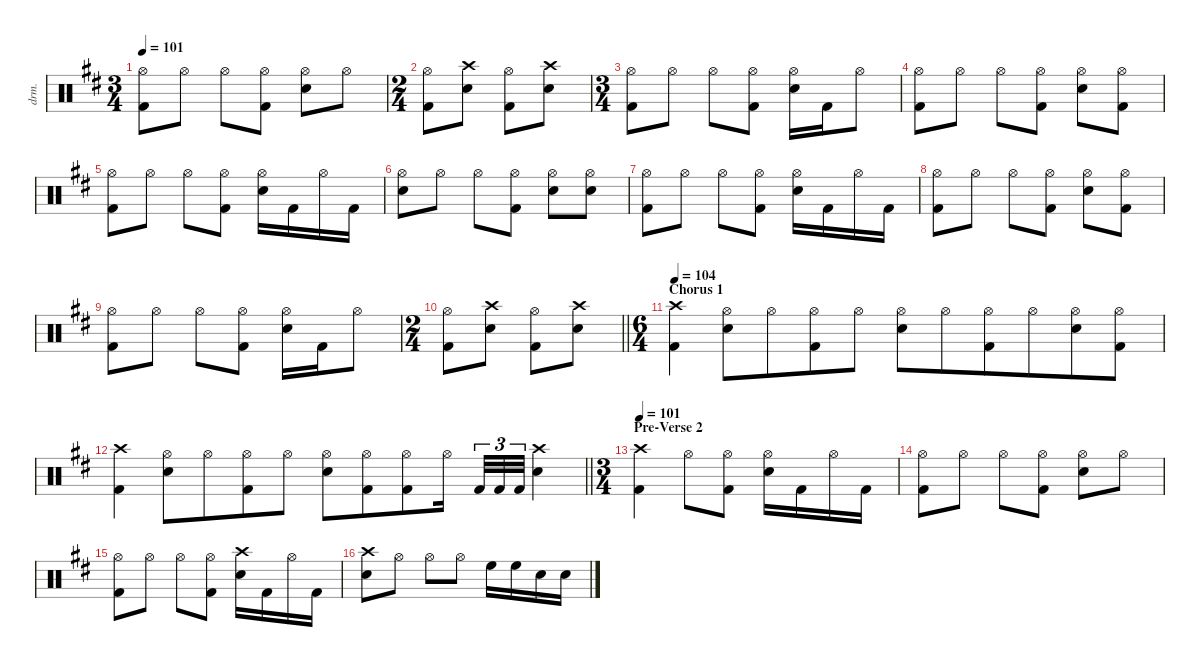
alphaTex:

\defaultSystemsLayout 4
\hideDynamics
\bracketExtendMode nobrackets
\otherSystemsTrackNameOrientation horizontal
\track ("Lars Ulrich" "drm.") {defaultSystemsLayout 4 instrument percussion}
\staff {score}
\articulation defaults
\ts (3 4)
\tempo 101
\clef neutral
\ks bminor
("Hi-Hat (open)"{acc forcenatural} "Kick (hit) 2"{acc forcenatural}).8{dy mf} "Hi-Hat (open)"{acc forcenatural}.8 "Hi-Hat (open)"{acc forcenatural}.8 ("Hi-Hat (open)"{acc forcenatural} "Kick (hit) 2"{acc forcenatural}).8 ("Hi-Hat (open)"{acc forcenatural} "Snare (hit) 2"{acc forcenatural}).8 "Hi-Hat (open)"{acc forcenatural}.8 |
\ts (2 4)
\beaming (8 2 2)
("Hi-Hat (open)"{acc forcenatural} "Kick (hit) 2"{acc forcenatural}).8 ("Crash high (hit)"{acc forcenatural} "Snare (hit) 2"{acc forcenatural}).8{dy f} ("Hi-Hat (open)"{acc forcenatural} "Kick (hit) 2"{acc forcenatural}).8{dy mf} ("Crash high (hit)"{acc forcenatural} "Snare (hit) 2"{acc forcenatural}).8{dy f} |
\ts (3 4)
\beaming (8 2 2 2)
("Hi-Hat (open)"{acc forcenatural} "Kick (hit) 2"{acc forcenatural}).8{dy mf} "Hi-Hat (open)"{acc forcenatural}.8 "Hi-Hat (open)"{acc forcenatural}.8 ("Hi-Hat (open)"{acc forcenatural} "Kick (hit) 2"{acc forcenatural}).8 ("Hi-Hat (open)"{acc forcenatural} "Snare (hit) 2"{acc forcenatural}).16 "Kick (hit) 2"{acc forcenatural}.16{dy fff} "Hi-Hat (open)"{acc forcenatural}.8{dy mf} |
("Hi-Hat (open)"{acc forcenatural} "Kick (hit) 2"{acc forcenatural}).8 "Hi-Hat (open)"{acc forcenatural}.8 "Hi-Hat (open)"{acc forcenatural}.8 ("Hi-Hat (open)"{acc forcenatural} "Kick (hit) 2"{acc forcenatural}).8 ("Hi-Hat (open)"{acc forcenatural} "Snare (hit) 2"{acc forcenatural}).8 ("Hi-Hat (open)"{acc forcenatural} "Kick (hit) 2"{acc forcenatural}).8 |
("Hi-Hat (open)"{acc forcenatural} "Kick (hit) 2"{acc forcenatural}).8 "Hi-Hat (open)"{acc forcenatural}.8 "Hi-Hat (open)"{acc forcenatural}.8 ("Hi-Hat (open)"{acc forcenatural} "Kick (hit) 2"{acc forcenatural}).8 ("Hi-Hat (open)"{acc forcenatural} "Snare (hit) 2"{acc forcenatural}).16 "Kick (hit) 2"{acc forcenatural}.16{dy fff} "Hi-Hat (open)"{acc forcenatural}.16{dy mf} "Kick (hit) 2"{acc forcenatural}.16{dy fff} |
("Hi-Hat (open)"{acc forcenatural} "Snare (hit) 2"{acc forcenatural}).8{dy mf} "Hi-Hat (open)"{acc forcenatural}.8 "Hi-Hat (open)"{acc forcenatural}.8 ("Hi-Hat (open)"{acc forcenatural} "Kick (hit) 2"{acc forcenatural}).8 ("Hi-Hat (open)"{acc forcenatural} "Snare (hit) 2"{acc forcenatural}).8 ("Hi-Hat (open)"{acc forcenatural} "Snare (hit) 2"{acc forcenatural}).8 |
("Hi-Hat (open)"{acc forcenatural} "Kick (hit) 2"{acc forcenatural}).8 "Hi-Hat (open)"{acc forcenatural}.8 "Hi-Hat (open)"{acc forcenatural}.8 ("Hi-Hat (open)"{acc forcenatural} "Kick (hit) 2"{acc forcenatural}).8 ("Hi-Hat (open)"{acc forcenatural} "Snare (hit) 2"{acc forcenatural}).16 "Kick (hit) 2"{acc forcenatural}.16{dy fff} "Hi-Hat (open)"{acc forcenatural}.16{dy mf} "Kick (hit) 2"{acc forcenatural}.16{dy fff} |
("Hi-Hat (open)"{acc forcenatural} "Kick (hit) 2"{acc forcenatural}).8{dy mf} "Hi-Hat (open)"{acc forcenatural}.8 "Hi-Hat (open)"{acc forcenatural}.8 ("Hi-Hat (open)"{acc forcenatural} "Kick (hit) 2"{acc forcenatural}).8 ("Hi-Hat (open)"{acc forcenatural} "Snare (hit) 2"{acc forcenatural}).8 ("Hi-Hat (open)"{acc forcenatural} "Kick (hit) 2"{acc forcenatural}).8 |
("Hi-Hat (open)"{acc forcenatural} "Kick (hit) 2"{acc forcenatural}).8 "Hi-Hat (open)"{acc forcenatural}.8 "Hi-Hat (open)"{acc forcenatural}.8 ("Hi-Hat (open)"{acc forcenatural} "Kick (hit) 2"{acc forcenatural}).8 ("Hi-Hat (open)"{acc forcenatural} "Snare (hit) 2"{acc forcenatural}).16 "Kick (hit) 2"{acc forcenatural}.16{dy fff} "Hi-Hat (open)"{acc forcenatural}.8{dy mf} |
\ts (2 4)
\beaming (8 2 2)
\barLineRight lightlight
("Hi-Hat (open)"{acc forcenatural} "Kick (hit) 2"{acc forcenatural}).8 ("Crash high (hit)"{acc forcenatural} "Snare (hit) 2"{acc forcenatural}).8{dy f} ("Hi-Hat (open)"{acc forcenatural} "Kick (hit) 2"{acc forcenatural}).8{dy mf} ("Crash high (hit)"{acc forcenatural} "Snare (hit) 2"{acc forcenatural}).8{dy f} |
\ts (6 4)
\beaming (8 6 6)
\section ("" "Chorus 1")
\tempo 104
("Crash high (hit)"{acc forcenatural} "Kick (hit) 2"{acc forcenatural}).4 ("Hi-Hat (open)"{acc forcenatural} "Snare (hit) 2"{acc forcenatural}).8 "Hi-Hat (open)"{acc forcenatural}.8 ("Hi-Hat (open)"{acc forcenatural} "Kick (hit) 2"{acc forcenatural}).8 "Hi-Hat (open)"{acc forcenatural}.8 ("Hi-Hat (open)"{acc forcenatural} "Snare (hit) 2"{acc forcenatural}).8 "Hi-Hat (open)"{acc forcenatural}.8 ("Hi-Hat (open)"{acc forcenatural} "Kick (hit) 2"{acc forcenatural}).8 "Hi-Hat (open)"{acc forcenatural}.8 ("Hi-Hat (open)"{acc forcenatural} "Snare (hit) 2"{acc forcenatural}).8 ("Hi-Hat (open)"{acc forcenatural} "Kick (hit) 2"{acc forcenatural}).8 |
\barLineRight lightlight
("Crash high (hit)"{acc forcenatural} "Kick (hit) 2"{acc forcenatural}).4 ("Hi-Hat (open)"{acc forcenatural} "Snare (hit) 2"{acc forcenatural}).8 "Hi-Hat (open)"{acc forcenatural}.8 ("Hi-Hat (open)"{acc forcenatural} "Kick (hit) 2"{acc forcenatural}).8 "Hi-Hat (open)"{acc forcenatural}.8 ("Hi-Hat (open)"{acc forcenatural} "Snare (hit) 2"{acc forcenatural}).8 ("Hi-Hat (open)"{acc forcenatural} "Kick (hit) 2"{acc forcenatural}).8 ("Hi-Hat (open)"{acc forcenatural} "Kick (hit) 2"{acc forcenatural}).8 "Hi-Hat (open)"{acc forcenatural}.16 "Kick (hit) 2"{acc forcenatural}.32{tu (3 2) dy fff} "Kick (hit) 2"{acc forcenatural}.32{tu (3 2)} "Kick (hit) 2"{acc forcenatural}.32{tu (3 2)} ("Crash high (hit)"{acc forcenatural} "Snare (hit) 2"{acc forcenatural}).4{dy f} |
\ts (3 4)
\beaming (8 2 2 2)
\section ("" "Pre-Verse 2")
\tempo 101
("Crash high (hit)"{acc forcenatural} "Kick (hit) 2"{acc forcenatural}).4 "Hi-Hat (open)"{acc forcenatural}.8{dy mf} ("Hi-Hat (open)"{acc forcenatural} "Kick (hit) 2"{acc forcenatural}).8 ("Hi-Hat (open)"{acc forcenatural} "Snare (hit) 2"{acc forcenatural}).16 "Kick (hit) 2"{acc forcenatural}.16{dy fff} "Hi-Hat (open)"{acc forcenatural}.16{dy mf} "Kick (hit) 2"{acc forcenatural}.16{dy fff} |
("Hi-Hat (open)"{acc forcenatural} "Kick (hit) 2"{acc forcenatural}).8{dy mf} "Hi-Hat (open)"{acc forcenatural}.8 "Hi-Hat (open)"{acc forcenatural}.8 ("Hi-Hat (open)"{acc forcenatural} "Kick (hit) 2"{acc forcenatural}).8 ("Hi-Hat (open)"{acc forcenatural} "Snare (hit) 2"{acc forcenatural}).8 "Hi-Hat (open)"{acc forcenatural}.8 |
("Hi-Hat (open)"{acc forcenatural} "Kick (hit) 2"{acc forcenatural}).8 "Hi-Hat (open)"{acc forcenatural}.8 "Hi-Hat (open)"{acc forcenatural}.8 ("Hi-Hat (open)"{acc forcenatural} "Kick (hit) 2"{acc forcenatural}).8 ("Crash high (hit)"{acc forcenatural} "Snare (hit) 2"{acc forcenatural}).16{dy f} "Kick (hit) 2"{acc forcenatural}.16{dy fff} "Hi-Hat (open)"{acc forcenatural}.16{dy mf} "Kick (hit) 2"{acc forcenatural}.16{dy fff} |
("Crash high (hit)"{acc forcenatural} "Snare (hit) 2"{acc forcenatural}).8{dy f} "Hi-Hat (open)"{acc forcenatural}.8{dy mf} "Hi-Hat (open)"{acc forcenatural}.8 "Hi-Hat (open)"{acc forcenatural}.8 "High Floor Tom (hit)"{acc forcenatural}.16{dy fff} "High Floor Tom (hit)"{acc forcenatural}.16 "Snare (hit) 2"{acc forcenatural}.16 "Snare (hit) 2"{acc forcenatural}.16
